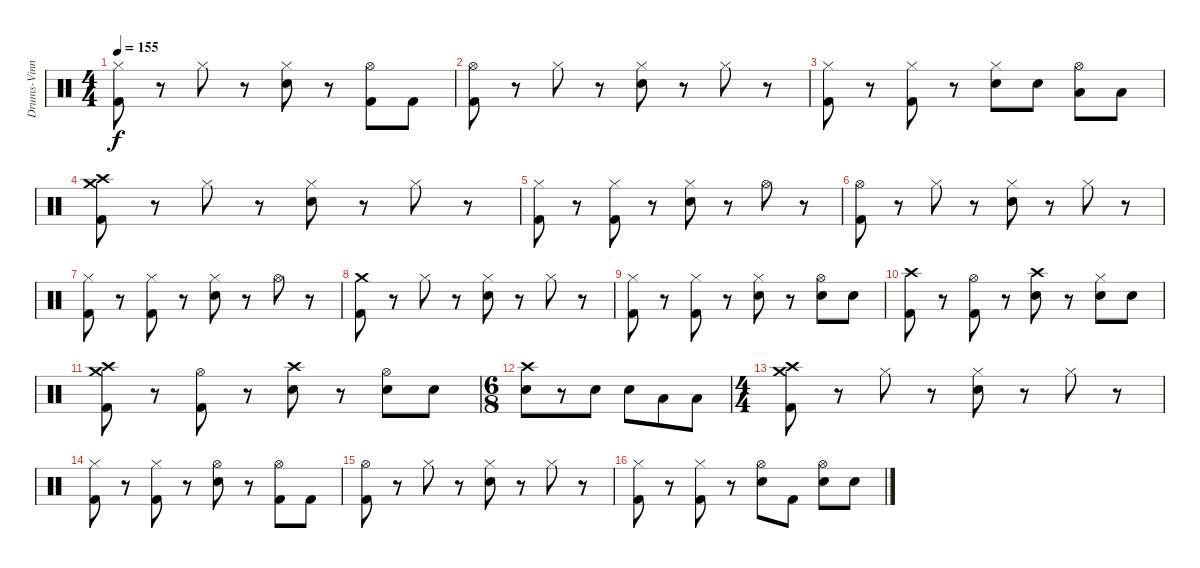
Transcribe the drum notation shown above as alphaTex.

\track ("Drums-Vinny Appice" "Drums-Vinn") {instrument percussion}
\staff {score}
\articulation defaults
\ts (4 4)
\tempo 155
\clef neutral
\ks c
("Hi-Hat (closed)" "Kick (hit) 2").8{dy f} r.8 "Hi-Hat (closed)".8 r.8 ("Hi-Hat (closed)" "Electric Snare (hit)").8 r.8 ("Hi-Hat (open)" "Kick (hit) 2").8 "Kick (hit) 2".8 |
("Hi-Hat (open)" "Kick (hit) 2").8 r.8 "Hi-Hat (closed)".8 r.8 ("Hi-Hat (closed)" "Electric Snare (hit)").8 r.8 "Hi-Hat (closed)".8 r.8 |
("Hi-Hat (closed)" "Kick (hit) 2").8 r.8 ("Hi-Hat (closed)" "Kick (hit) 2").8 r.8 ("Hi-Hat (closed)" "Electric Snare (hit)").8 "Electric Snare (hit)".8 ("Hi-Hat (open)" "Low Floor Tom (hit)").8 "Low Floor Tom (hit)".8 |
("Crash medium (hit)" "Crash high (hit)" "Kick (hit) 2").8 r.8 "Hi-Hat (closed)".8 r.8 ("Hi-Hat (closed)" "Electric Snare (hit)").8 r.8 "Hi-Hat (closed)".8 r.8 |
("Hi-Hat (closed)" "Kick (hit) 2").8 r.8 ("Hi-Hat (closed)" "Kick (hit) 2").8 r.8 ("Hi-Hat (closed)" "Electric Snare (hit)").8 r.8 "Hi-Hat (open)".8 r.8 |
("Hi-Hat (open)" "Kick (hit) 2").8 r.8 "Hi-Hat (closed)".8 r.8 ("Hi-Hat (closed)" "Electric Snare (hit)").8 r.8 "Hi-Hat (closed)".8 r.8 |
("Hi-Hat (closed)" "Kick (hit) 2").8 r.8 ("Hi-Hat (closed)" "Kick (hit) 2").8 r.8 ("Hi-Hat (closed)" "Electric Snare (hit)").8 r.8 "Hi-Hat (open)".8 r.8 |
("Crash medium (hit)" "Kick (hit) 2").8 r.8 "Hi-Hat (closed)".8 r.8 ("Hi-Hat (closed)" "Electric Snare (hit)").8 r.8 "Hi-Hat (closed)".8 r.8 |
("Hi-Hat (closed)" "Kick (hit) 2").8 r.8 ("Hi-Hat (closed)" "Kick (hit) 2").8 r.8 ("Hi-Hat (closed)" "Electric Snare (hit)").8 r.8 ("Hi-Hat (open)" "Electric Snare (hit)").8 "Electric Snare (hit)".8 |
("Crash high (hit)" "Kick (hit) 2").8 r.8 ("Hi-Hat (open)" "Kick (hit) 2").8 r.8 ("Crash high (hit)" "Electric Snare (hit)").8 r.8 ("Hi-Hat (closed)" "Electric Snare (hit)").8 "Electric Snare (hit)".8 |
("Crash medium (hit)" "Crash high (hit)" "Kick (hit) 2").8 r.8 ("Hi-Hat (open)" "Kick (hit) 2").8 r.8 ("Crash high (hit)" "Electric Snare (hit)").8 r.8 ("Hi-Hat (open)" "Electric Snare (hit)").8 "Electric Snare (hit)".8 |
\ts (6 8)
("Crash high (hit)" "Electric Snare (hit)").8 r.8 "Electric Snare (hit)".8 "Electric Snare (hit)".8 "Low Floor Tom (hit)".8 "Low Floor Tom (hit)".8 |
\ts (4 4)
("Crash medium (hit)" "Crash high (hit)" "Kick (hit) 2").8 r.8 "Hi-Hat (closed)".8 r.8 ("Hi-Hat (closed)" "Electric Snare (hit)").8 r.8 "Hi-Hat (closed)".8 r.8 |
("Hi-Hat (closed)" "Kick (hit) 2").8 r.8 ("Hi-Hat (closed)" "Kick (hit) 2").8 r.8 ("Hi-Hat (open)" "Electric Snare (hit)").8 r.8 ("Hi-Hat (open)" "Kick (hit) 2").8 "Kick (hit) 2".8 |
("Hi-Hat (open)" "Kick (hit) 2").8 r.8 "Hi-Hat (closed)".8 r.8 ("Hi-Hat (closed)" "Electric Snare (hit)").8 r.8 "Hi-Hat (closed)".8 r.8 |
("Hi-Hat (closed)" "Kick (hit) 2").8 r.8 ("Hi-Hat (closed)" "Kick (hit) 2").8 r.8 ("Hi-Hat (open)" "Electric Snare (hit)").8 "Kick (hit) 2".8 ("Hi-Hat (open)" "Electric Snare (hit)").8 "Electric Snare (hit)".8
